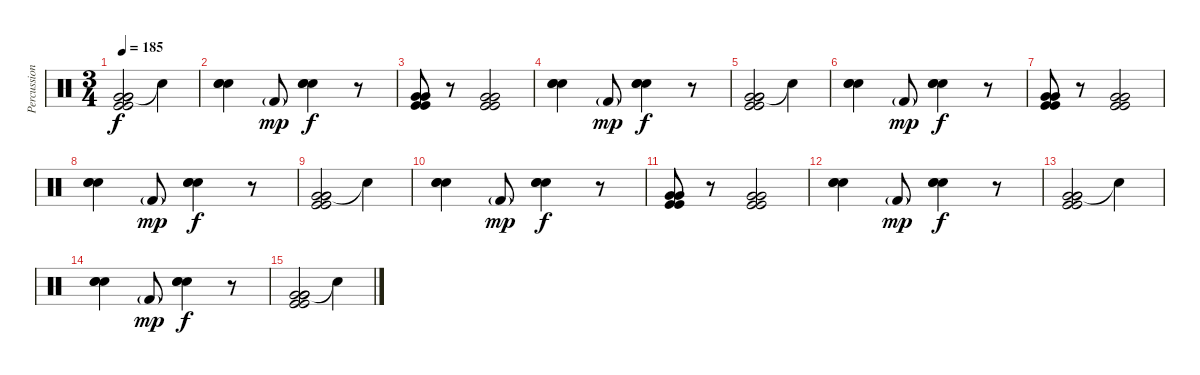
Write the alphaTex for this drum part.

\track ("Percussions" "Percussion") {instrument percussion}
\staff {score}
\articulation defaults
\ts (3 4)
\tempo 185
\clef neutral
\ks c
("Very Low Tom (hit)" "Very Low Tom (hit)" "Very Low Tom (hit)" "Kick (hit)" "Kick (hit)").2{dy f} "Snare (hit)"{t}.4 |
("Electric Snare (hit)" "Electric Snare (hit)" "Electric Snare (hit)").4 "Kick (hit) 2"{g}.8{dy mp volume 12} ("Electric Snare (hit)" "Electric Snare (hit)" "Electric Snare (hit)").4{dy f volume 16} r.8 |
("Very Low Tom (hit)" "Very Low Tom (hit)" "Kick (hit)" "Kick (hit)").8 r.8 ("Very Low Tom (hit)" "Very Low Tom (hit)" "Kick (hit)" "Kick (hit)").2 |
("Electric Snare (hit)" "Electric Snare (hit)" "Electric Snare (hit)").4 "Kick (hit) 2"{g}.8{dy mp volume 12} ("Electric Snare (hit)" "Electric Snare (hit)" "Electric Snare (hit)").4{dy f volume 16} r.8 |
("Very Low Tom (hit)" "Very Low Tom (hit)" "Very Low Tom (hit)" "Kick (hit)" "Kick (hit)").2 "Snare (hit)"{t}.4 |
("Electric Snare (hit)" "Electric Snare (hit)" "Electric Snare (hit)").4 "Kick (hit) 2"{g}.8{dy mp volume 12} ("Electric Snare (hit)" "Electric Snare (hit)" "Electric Snare (hit)").4{dy f volume 16} r.8 |
("Very Low Tom (hit)" "Very Low Tom (hit)" "Kick (hit)" "Kick (hit)").8 r.8 ("Very Low Tom (hit)" "Very Low Tom (hit)" "Kick (hit)" "Kick (hit)").2 |
("Electric Snare (hit)" "Electric Snare (hit)" "Electric Snare (hit)").4 "Kick (hit) 2"{g}.8{dy mp volume 12} ("Electric Snare (hit)" "Electric Snare (hit)" "Electric Snare (hit)").4{dy f volume 16} r.8 |
("Very Low Tom (hit)" "Very Low Tom (hit)" "Very Low Tom (hit)" "Kick (hit)" "Kick (hit)").2 "Snare (hit)"{t}.4 |
("Electric Snare (hit)" "Electric Snare (hit)" "Electric Snare (hit)").4 "Kick (hit) 2"{g}.8{dy mp volume 12} ("Electric Snare (hit)" "Electric Snare (hit)" "Electric Snare (hit)").4{dy f volume 16} r.8 |
("Very Low Tom (hit)" "Very Low Tom (hit)" "Kick (hit)" "Kick (hit)").8 r.8 ("Very Low Tom (hit)" "Very Low Tom (hit)" "Kick (hit)" "Kick (hit)").2 |
("Electric Snare (hit)" "Electric Snare (hit)" "Electric Snare (hit)").4 "Kick (hit) 2"{g}.8{dy mp volume 12} ("Electric Snare (hit)" "Electric Snare (hit)" "Electric Snare (hit)").4{dy f volume 16} r.8 |
("Very Low Tom (hit)" "Very Low Tom (hit)" "Very Low Tom (hit)" "Kick (hit)" "Kick (hit)").2 "Snare (hit)"{t}.4 |
("Electric Snare (hit)" "Electric Snare (hit)" "Electric Snare (hit)").4 "Kick (hit) 2"{g}.8{dy mp volume 12} ("Electric Snare (hit)" "Electric Snare (hit)" "Electric Snare (hit)").4{dy f volume 16} r.8 |
("Very Low Tom (hit)" "Very Low Tom (hit)" "Very Low Tom (hit)" "Kick (hit)" "Kick (hit)").2 "Snare (hit)"{t}.4
